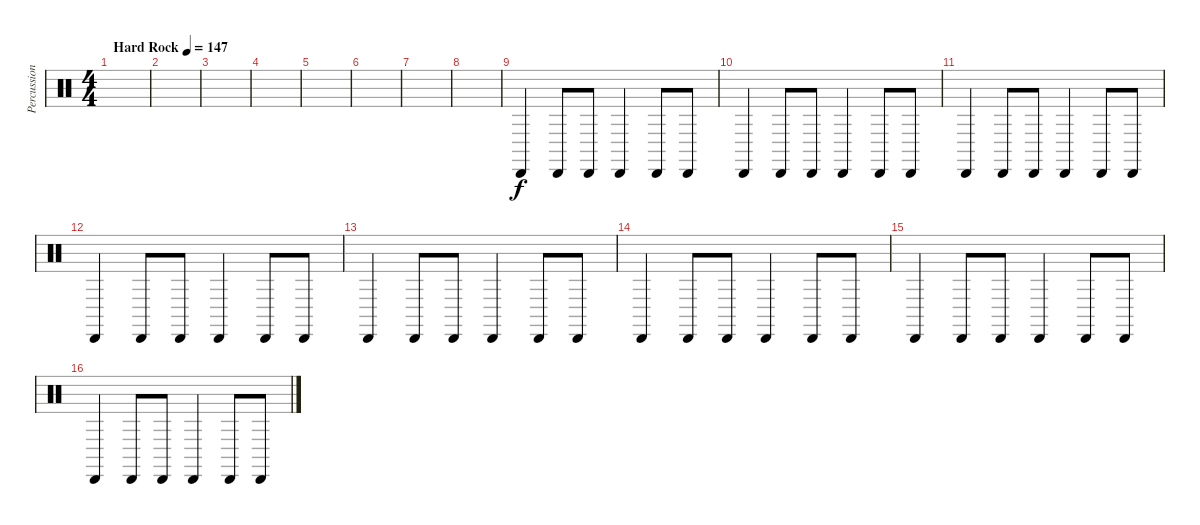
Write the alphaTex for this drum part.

\track ("Percussion (Matt Laug)" "Percussion") {instrument percussion}
\staff {score}
\articulation defaults
\ts (4 4)
\tempo (147 "Hard Rock")
\clef neutral
\ks c
|
|
|
|
|
|
|
|
"Cabasa (hit)".4 "Cabasa (hit)".8 "Cabasa (hit)".8 "Cabasa (hit)".4 "Cabasa (hit)".8 "Cabasa (hit)".8 |
"Cabasa (hit)".4 "Cabasa (hit)".8 "Cabasa (hit)".8 "Cabasa (hit)".4 "Cabasa (hit)".8 "Cabasa (hit)".8 |
"Cabasa (hit)".4 "Cabasa (hit)".8 "Cabasa (hit)".8 "Cabasa (hit)".4 "Cabasa (hit)".8 "Cabasa (hit)".8 |
"Cabasa (hit)".4 "Cabasa (hit)".8 "Cabasa (hit)".8 "Cabasa (hit)".4 "Cabasa (hit)".8 "Cabasa (hit)".8 |
"Cabasa (hit)".4 "Cabasa (hit)".8 "Cabasa (hit)".8 "Cabasa (hit)".4 "Cabasa (hit)".8 "Cabasa (hit)".8 |
"Cabasa (hit)".4 "Cabasa (hit)".8 "Cabasa (hit)".8 "Cabasa (hit)".4 "Cabasa (hit)".8 "Cabasa (hit)".8 |
"Cabasa (hit)".4 "Cabasa (hit)".8 "Cabasa (hit)".8 "Cabasa (hit)".4 "Cabasa (hit)".8 "Cabasa (hit)".8 |
"Cabasa (hit)".4 "Cabasa (hit)".8 "Cabasa (hit)".8 "Cabasa (hit)".4 "Cabasa (hit)".8 "Cabasa (hit)".8
